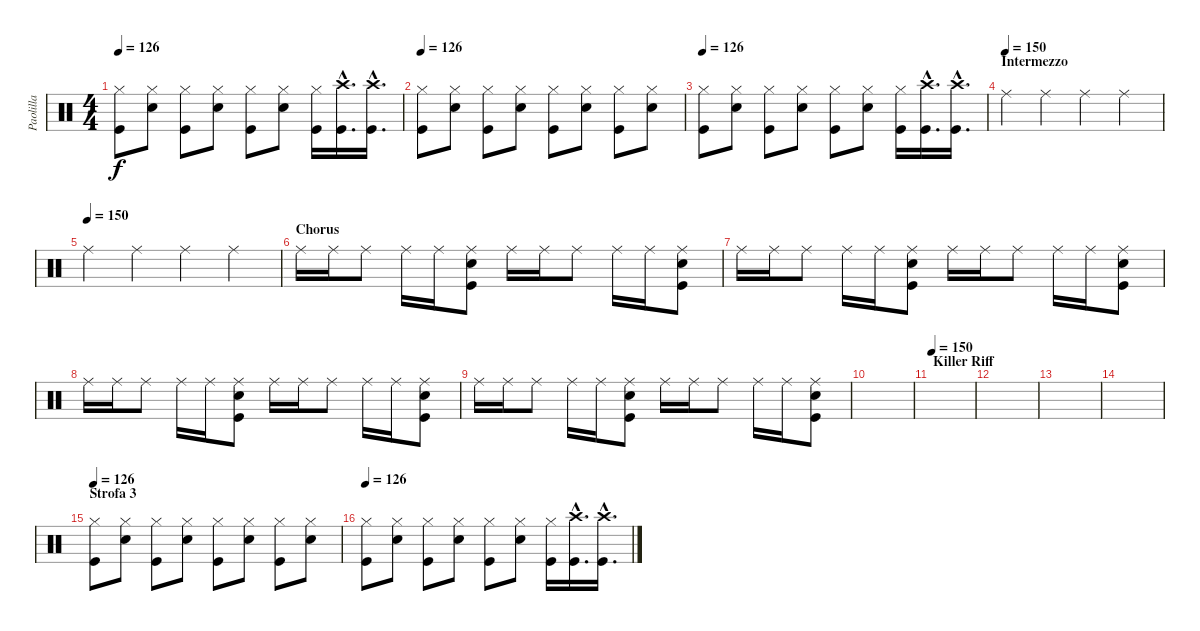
\track ("Paolilla" "Paolilla") {instrument percussion}
\staff {score}
\articulation defaults
\ts (4 4)
\tempo 126
\clef neutral
\ks c
("Hi-Hat (closed)" "Kick (hit)").8{dy f} ("Hi-Hat (closed)" "Snare (hit) 2").8 ("Hi-Hat (closed)" "Kick (hit)").8 ("Hi-Hat (closed)" "Snare (hit) 2").8 ("Hi-Hat (closed)" "Kick (hit)").8 ("Hi-Hat (closed)" "Snare (hit) 2").8 ("Hi-Hat (closed)" "Kick (hit)").16 ("Crash high (hit)"{hac} "Kick (hit)"{hac}).16{d} ("Crash high (hit)"{hac} "Kick (hit)"{hac}).16{d} |
\tempo 126
("Hi-Hat (closed)" "Kick (hit)").8 ("Hi-Hat (closed)" "Snare (hit) 2").8 ("Hi-Hat (closed)" "Kick (hit)").8 ("Hi-Hat (closed)" "Snare (hit) 2").8 ("Hi-Hat (closed)" "Kick (hit)").8 ("Hi-Hat (closed)" "Snare (hit) 2").8 ("Hi-Hat (closed)" "Kick (hit)").8 ("Hi-Hat (closed)" "Snare (hit) 2").8 |
\tempo 126
("Hi-Hat (closed)" "Kick (hit)").8 ("Hi-Hat (closed)" "Snare (hit) 2").8 ("Hi-Hat (closed)" "Kick (hit)").8 ("Hi-Hat (closed)" "Snare (hit) 2").8 ("Hi-Hat (closed)" "Kick (hit)").8 ("Hi-Hat (closed)" "Snare (hit) 2").8 ("Hi-Hat (closed)" "Kick (hit)").16 ("Crash high (hit)"{hac} "Kick (hit)"{hac}).16{d} ("Crash high (hit)"{hac} "Kick (hit)"{hac}).16{d} |
\section ("" "Intermezzo")
\tempo (150)
"Ride (middle)".4 "Ride (middle)".4 "Ride (middle)".4 "Ride (middle)".4 |
\tempo (150)
"Ride (middle)".4 "Ride (middle)".4 "Ride (middle)".4 "Ride (middle)".4 |
\section ("" "Chorus")
"Ride (middle)".16 "Ride (middle)".16 "Ride (middle)".8 "Ride (middle)".16 "Ride (middle)".16 ("Ride (middle)" "Snare (hit) 2" "Kick (hit)").8 "Ride (middle)".16 "Ride (middle)".16 "Ride (middle)".8 "Ride (middle)".16 "Ride (middle)".16 ("Ride (middle)" "Snare (hit) 2" "Kick (hit)").8 |
"Ride (middle)".16 "Ride (middle)".16 "Ride (middle)".8 "Ride (middle)".16 "Ride (middle)".16 ("Ride (middle)" "Snare (hit) 2" "Kick (hit)").8 "Ride (middle)".16 "Ride (middle)".16 "Ride (middle)".8 "Ride (middle)".16 "Ride (middle)".16 ("Ride (middle)" "Snare (hit) 2" "Kick (hit)").8 |
"Ride (middle)".16 "Ride (middle)".16 "Ride (middle)".8 "Ride (middle)".16 "Ride (middle)".16 ("Ride (middle)" "Snare (hit) 2" "Kick (hit)").8 "Ride (middle)".16 "Ride (middle)".16 "Ride (middle)".8 "Ride (middle)".16 "Ride (middle)".16 ("Ride (middle)" "Snare (hit) 2" "Kick (hit)").8 |
"Ride (middle)".16 "Ride (middle)".16 "Ride (middle)".8 "Ride (middle)".16 "Ride (middle)".16 ("Ride (middle)" "Snare (hit) 2" "Kick (hit)").8 "Ride (middle)".16 "Ride (middle)".16 "Ride (middle)".8 "Ride (middle)".16 "Ride (middle)".16 ("Ride (middle)" "Snare (hit) 2" "Kick (hit)").8 |
|
\section ("" "Killer Riff")
\tempo 150
|
|
|
|
\section ("" "Strofa 3")
\tempo 126
("Hi-Hat (closed)" "Kick (hit)").8 ("Hi-Hat (closed)" "Snare (hit) 2").8 ("Hi-Hat (closed)" "Kick (hit)").8 ("Hi-Hat (closed)" "Snare (hit) 2").8 ("Hi-Hat (closed)" "Kick (hit)").8 ("Hi-Hat (closed)" "Snare (hit) 2").8 ("Hi-Hat (closed)" "Kick (hit)").8 ("Hi-Hat (closed)" "Snare (hit) 2").8 |
\tempo 126
("Hi-Hat (closed)" "Kick (hit)").8 ("Hi-Hat (closed)" "Snare (hit) 2").8 ("Hi-Hat (closed)" "Kick (hit)").8 ("Hi-Hat (closed)" "Snare (hit) 2").8 ("Hi-Hat (closed)" "Kick (hit)").8 ("Hi-Hat (closed)" "Snare (hit) 2").8 ("Hi-Hat (closed)" "Kick (hit)").16 ("Crash high (hit)"{hac} "Kick (hit)"{hac}).16{d} ("Crash high (hit)"{hac} "Kick (hit)"{hac}).16{d}
